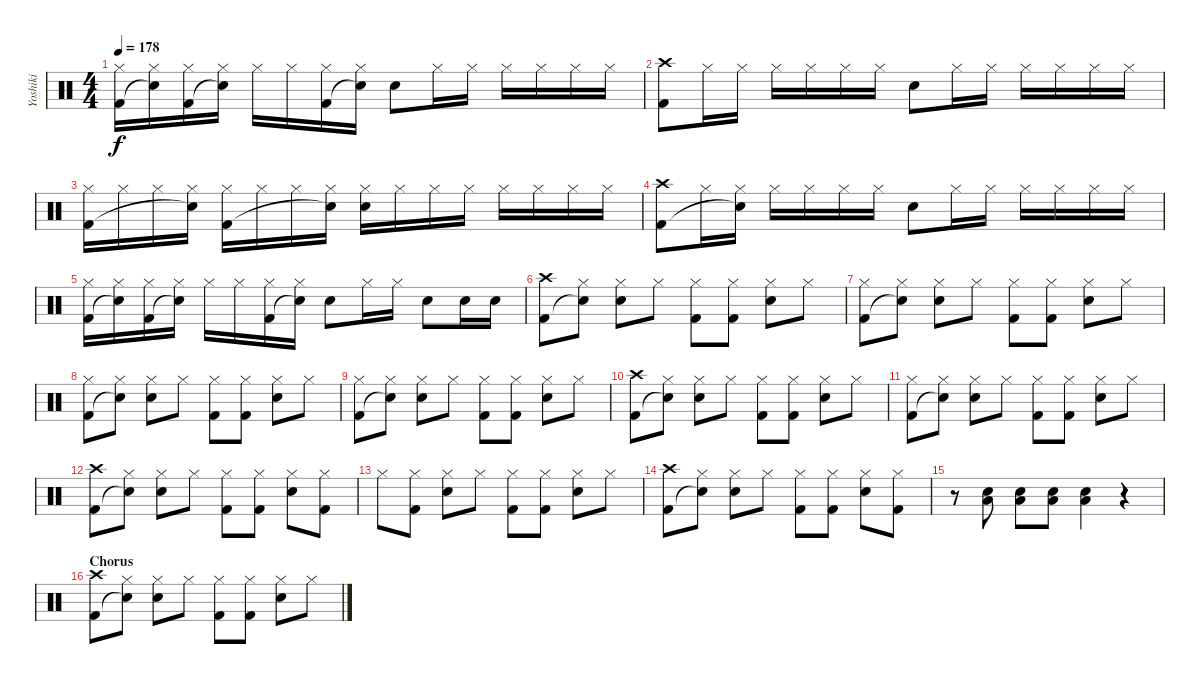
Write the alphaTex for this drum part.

\track ("Yoshiki" "Yoshiki") {instrument percussion}
\staff {score}
\articulation defaults
\ts (4 4)
\tempo 178
\clef neutral
\ks c
("Hi-Hat (closed)" "Kick (hit) 2").16{dy f} ("Hi-Hat (closed)" "Snare (hit)"{t}).16 ("Hi-Hat (closed)" "Kick (hit) 2").16 ("Hi-Hat (closed)" "Snare (hit)"{t}).16 "Hi-Hat (closed)".16 "Hi-Hat (closed)".16 ("Hi-Hat (closed)" "Kick (hit) 2").16 ("Hi-Hat (closed)" "Snare (hit)"{t}).16 "Snare (hit) 2".8 "Hi-Hat (closed)".16 "Hi-Hat (closed)".16 "Hi-Hat (closed)".16 "Hi-Hat (closed)".16 "Hi-Hat (closed)".16 "Hi-Hat (closed)".16 |
("Crash high (hit)" "Kick (hit) 2").8 "Hi-Hat (closed)".16 "Hi-Hat (closed)".16 "Hi-Hat (closed)".16 "Hi-Hat (closed)".16 "Hi-Hat (closed)".16 "Hi-Hat (closed)".16 "Snare (hit) 2".8 "Hi-Hat (closed)".16 "Hi-Hat (closed)".16 "Hi-Hat (closed)".16 "Hi-Hat (closed)".16 "Hi-Hat (closed)".16 "Hi-Hat (closed)".16 |
("Hi-Hat (closed)" "Kick (hit) 2").16 "Hi-Hat (closed)".16 "Hi-Hat (closed)".16 ("Hi-Hat (closed)" "Snare (hit)"{t}).16 ("Hi-Hat (closed)" "Kick (hit) 2").16 "Hi-Hat (closed)".16 "Hi-Hat (closed)".16 ("Hi-Hat (closed)" "Snare (hit)"{t}).16 ("Hi-Hat (closed)" "Snare (hit) 2").16 "Hi-Hat (closed)".16 "Hi-Hat (closed)".16 "Hi-Hat (closed)".16 "Hi-Hat (closed)".16 "Hi-Hat (closed)".16 "Hi-Hat (closed)".16 "Hi-Hat (closed)".16 |
("Crash high (hit)" "Kick (hit) 2").8 "Hi-Hat (closed)".16 ("Hi-Hat (closed)" "Snare (hit)"{t}).16 "Hi-Hat (closed)".16 "Hi-Hat (closed)".16 "Hi-Hat (closed)".16 "Hi-Hat (closed)".16 "Snare (hit) 2".8 "Hi-Hat (closed)".16 "Hi-Hat (closed)".16 "Hi-Hat (closed)".16 "Hi-Hat (closed)".16 "Hi-Hat (closed)".16 "Hi-Hat (closed)".16 |
("Hi-Hat (closed)" "Kick (hit) 2").16 ("Hi-Hat (closed)" "Snare (hit)"{t}).16 ("Hi-Hat (closed)" "Kick (hit) 2").16 ("Hi-Hat (closed)" "Snare (hit)"{t}).16 "Hi-Hat (closed)".16 "Hi-Hat (closed)".16 ("Hi-Hat (closed)" "Kick (hit) 2").16 ("Hi-Hat (closed)" "Snare (hit)"{t}).16 "Snare (hit) 2".8 "Hi-Hat (closed)".16 "Hi-Hat (closed)".16 "Snare (hit) 2".8 "Snare (hit) 2".16 "Snare (hit) 2".16 |
("Crash high (hit)" "Kick (hit) 2").8 ("Hi-Hat (closed)" "Snare (hit)"{t}).8 ("Hi-Hat (closed)" "Snare (hit) 2").8 "Hi-Hat (closed)".8 ("Hi-Hat (closed)" "Kick (hit) 2").8 ("Hi-Hat (closed)" "Kick (hit) 2").8 ("Hi-Hat (closed)" "Snare (hit) 2").8 "Hi-Hat (closed)".8 |
("Hi-Hat (closed)" "Kick (hit) 2").8 ("Hi-Hat (closed)" "Snare (hit)"{t}).8 ("Hi-Hat (closed)" "Snare (hit) 2").8 "Hi-Hat (closed)".8 ("Hi-Hat (closed)" "Kick (hit) 2").8 ("Hi-Hat (closed)" "Kick (hit) 2").8 ("Hi-Hat (closed)" "Snare (hit) 2").8 "Hi-Hat (closed)".8 |
("Hi-Hat (closed)" "Kick (hit) 2").8 ("Hi-Hat (closed)" "Snare (hit)"{t}).8 ("Hi-Hat (closed)" "Snare (hit) 2").8 "Hi-Hat (closed)".8 ("Hi-Hat (closed)" "Kick (hit) 2").8 ("Hi-Hat (closed)" "Kick (hit) 2").8 ("Hi-Hat (closed)" "Snare (hit) 2").8 "Hi-Hat (closed)".8 |
("Hi-Hat (closed)" "Kick (hit) 2").8 ("Hi-Hat (closed)" "Snare (hit)"{t}).8 ("Hi-Hat (closed)" "Snare (hit) 2").8 "Hi-Hat (closed)".8 ("Hi-Hat (closed)" "Kick (hit) 2").8 ("Hi-Hat (closed)" "Kick (hit) 2").8 ("Hi-Hat (closed)" "Snare (hit) 2").8 "Hi-Hat (closed)".8 |
("Crash high (hit)" "Kick (hit) 2").8 ("Hi-Hat (closed)" "Snare (hit)"{t}).8 ("Hi-Hat (closed)" "Snare (hit) 2").8 "Hi-Hat (closed)".8 ("Hi-Hat (closed)" "Kick (hit) 2").8 ("Hi-Hat (closed)" "Kick (hit) 2").8 ("Hi-Hat (closed)" "Snare (hit) 2").8 "Hi-Hat (closed)".8 |
("Hi-Hat (closed)" "Kick (hit) 2").8 ("Hi-Hat (closed)" "Snare (hit)"{t}).8 ("Hi-Hat (closed)" "Snare (hit) 2").8 "Hi-Hat (closed)".8 ("Hi-Hat (closed)" "Kick (hit) 2").8 ("Hi-Hat (closed)" "Kick (hit) 2").8 ("Hi-Hat (closed)" "Snare (hit) 2").8 "Hi-Hat (closed)".8 |
("Crash high (hit)" "Kick (hit) 2").8 ("Hi-Hat (closed)" "Snare (hit)"{t}).8 ("Hi-Hat (closed)" "Snare (hit) 2").8 "Hi-Hat (closed)".8 ("Hi-Hat (closed)" "Kick (hit) 2").8 ("Hi-Hat (closed)" "Kick (hit) 2").8 ("Hi-Hat (closed)" "Snare (hit) 2").8 ("Hi-Hat (closed)" "Kick (hit) 2").8 |
"Hi-Hat (closed)".8 ("Hi-Hat (closed)" "Kick (hit) 2").8 ("Hi-Hat (closed)" "Snare (hit) 2").8 "Hi-Hat (closed)".8 ("Hi-Hat (closed)" "Kick (hit) 2").8 ("Hi-Hat (closed)" "Kick (hit) 2").8 ("Hi-Hat (closed)" "Snare (hit) 2").8 "Hi-Hat (closed)".8 |
("Crash high (hit)" "Kick (hit) 2").8 ("Hi-Hat (closed)" "Snare (hit)"{t}).8 ("Hi-Hat (closed)" "Snare (hit) 2").8 "Hi-Hat (closed)".8 ("Hi-Hat (closed)" "Kick (hit) 2").8 ("Hi-Hat (closed)" "Kick (hit) 2").8 ("Hi-Hat (closed)" "Snare (hit) 2").8 ("Hi-Hat (closed)" "Kick (hit) 2").8 |
r.8 ("Snare (hit) 2" "Low Floor Tom (hit)").8 ("Snare (hit) 2" "Low Floor Tom (hit)").8 ("Snare (hit) 2" "Low Floor Tom (hit)").8 ("Snare (hit) 2" "Low Floor Tom (hit)").4 r.4 |
\section ("" "Chorus")
("Crash high (hit)" "Kick (hit) 2").8 ("Hi-Hat (closed)" "Snare (hit)"{t}).8 ("Hi-Hat (closed)" "Snare (hit) 2").8 "Hi-Hat (closed)".8 ("Hi-Hat (closed)" "Kick (hit) 2").8 ("Hi-Hat (closed)" "Kick (hit) 2").8 ("Hi-Hat (closed)" "Snare (hit) 2").8 "Hi-Hat (closed)".8
